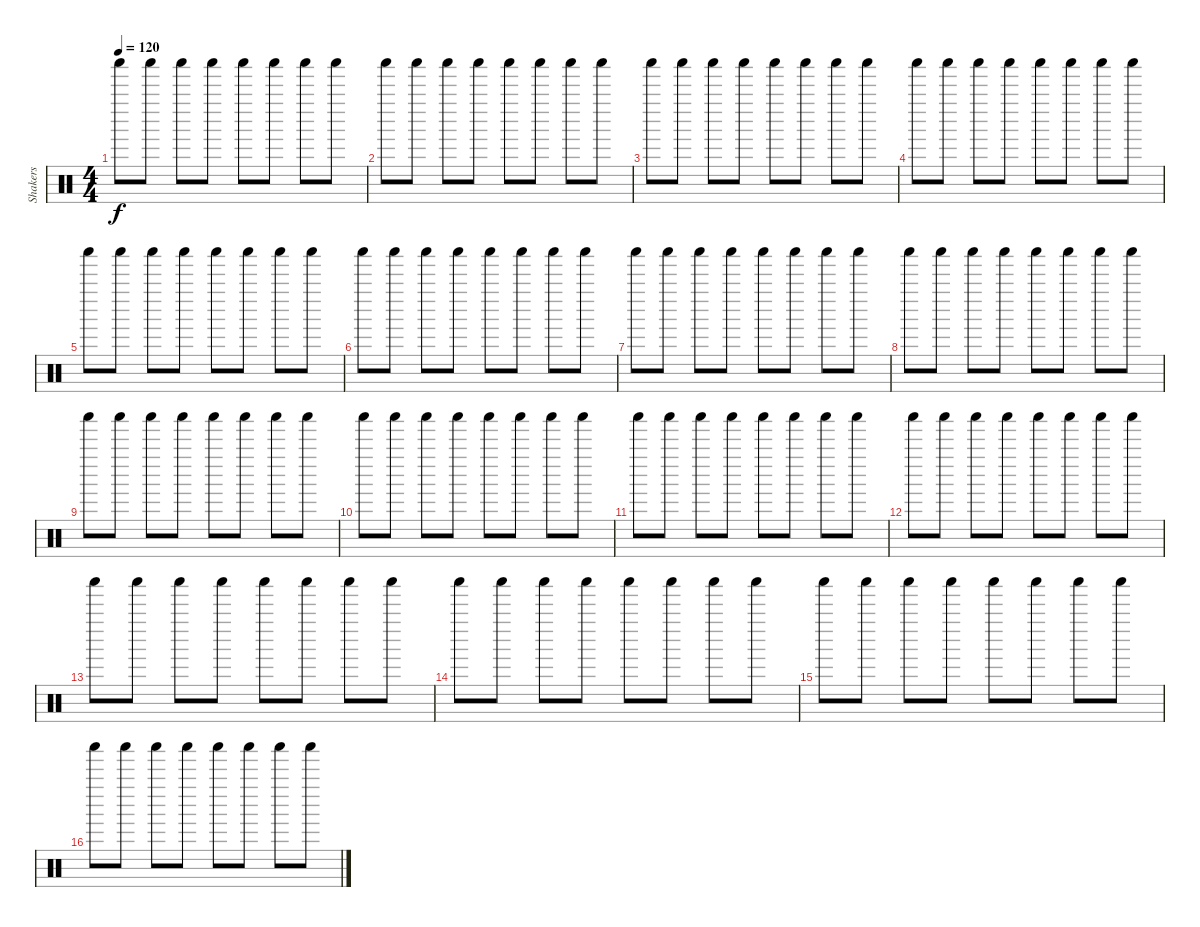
\track ("Shakers" "Shakers") {instrument percussion}
\staff {score}
\articulation defaults
\ts (4 4)
\tempo 120
\clef neutral
\ks c "Shaker (hit)".8{dy f} "Shaker (hit)".8 "Shaker (hit)".8 "Shaker (hit)".8 "Shaker (hit)".8 "Shaker (hit)".8 "Shaker (hit)".8 "Shaker (hit)".8
|
"Shaker (hit)".8 "Shaker (hit)".8 "Shaker (hit)".8 "Shaker (hit)".8 "Shaker (hit)".8 "Shaker (hit)".8 "Shaker (hit)".8 "Shaker (hit)".8 |
"Shaker (hit)".8 "Shaker (hit)".8 "Shaker (hit)".8 "Shaker (hit)".8 "Shaker (hit)".8 "Shaker (hit)".8 "Shaker (hit)".8 "Shaker (hit)".8 |
"Shaker (hit)".8 "Shaker (hit)".8 "Shaker (hit)".8 "Shaker (hit)".8 "Shaker (hit)".8 "Shaker (hit)".8 "Shaker (hit)".8 "Shaker (hit)".8 |
"Shaker (hit)".8 "Shaker (hit)".8 "Shaker (hit)".8 "Shaker (hit)".8 "Shaker (hit)".8 "Shaker (hit)".8 "Shaker (hit)".8 "Shaker (hit)".8 |
"Shaker (hit)".8 "Shaker (hit)".8 "Shaker (hit)".8 "Shaker (hit)".8 "Shaker (hit)".8 "Shaker (hit)".8 "Shaker (hit)".8 "Shaker (hit)".8 |
"Shaker (hit)".8 "Shaker (hit)".8 "Shaker (hit)".8 "Shaker (hit)".8 "Shaker (hit)".8 "Shaker (hit)".8 "Shaker (hit)".8 "Shaker (hit)".8 |
"Shaker (hit)".8 "Shaker (hit)".8 "Shaker (hit)".8 "Shaker (hit)".8 "Shaker (hit)".8 "Shaker (hit)".8 "Shaker (hit)".8 "Shaker (hit)".8 |
"Shaker (hit)".8 "Shaker (hit)".8 "Shaker (hit)".8 "Shaker (hit)".8 "Shaker (hit)".8 "Shaker (hit)".8 "Shaker (hit)".8 "Shaker (hit)".8 |
"Shaker (hit)".8 "Shaker (hit)".8 "Shaker (hit)".8 "Shaker (hit)".8 "Shaker (hit)".8 "Shaker (hit)".8 "Shaker (hit)".8 "Shaker (hit)".8 |
"Shaker (hit)".8 "Shaker (hit)".8 "Shaker (hit)".8 "Shaker (hit)".8 "Shaker (hit)".8 "Shaker (hit)".8 "Shaker (hit)".8 "Shaker (hit)".8 |
"Shaker (hit)".8 "Shaker (hit)".8 "Shaker (hit)".8 "Shaker (hit)".8 "Shaker (hit)".8 "Shaker (hit)".8 "Shaker (hit)".8 "Shaker (hit)".8 |
"Shaker (hit)".8 "Shaker (hit)".8 "Shaker (hit)".8 "Shaker (hit)".8 "Shaker (hit)".8 "Shaker (hit)".8 "Shaker (hit)".8 "Shaker (hit)".8 |
"Shaker (hit)".8 "Shaker (hit)".8 "Shaker (hit)".8 "Shaker (hit)".8 "Shaker (hit)".8 "Shaker (hit)".8 "Shaker (hit)".8 "Shaker (hit)".8 |
"Shaker (hit)".8 "Shaker (hit)".8 "Shaker (hit)".8 "Shaker (hit)".8 "Shaker (hit)".8 "Shaker (hit)".8 "Shaker (hit)".8 "Shaker (hit)".8 |
"Shaker (hit)".8 "Shaker (hit)".8 "Shaker (hit)".8 "Shaker (hit)".8 "Shaker (hit)".8 "Shaker (hit)".8 "Shaker (hit)".8 "Shaker (hit)".8
